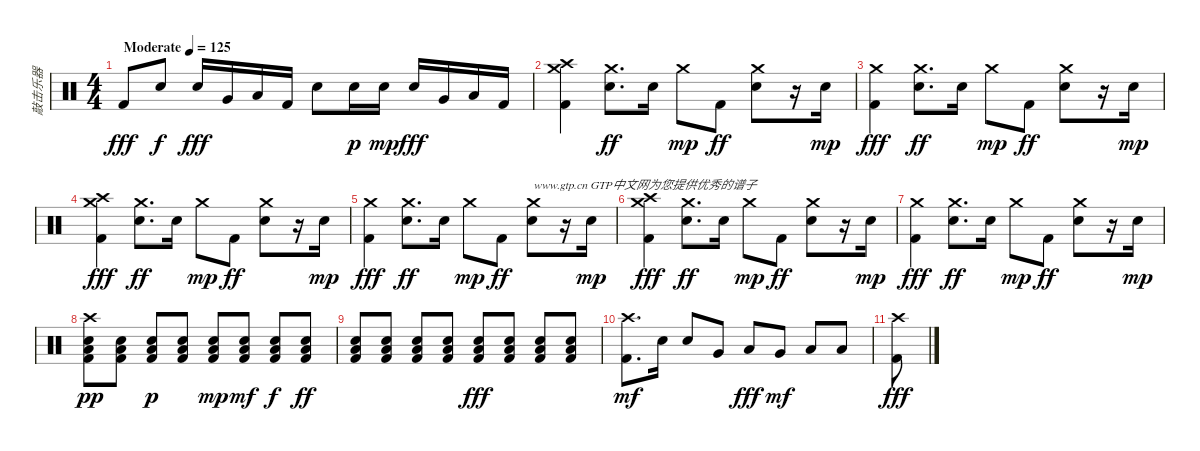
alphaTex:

\track ("敲击乐器" "敲击乐器") {instrument percussion}
\staff {score}
\articulation defaults
\ts (4 4)
\tempo (125 "Moderate")
\clef neutral
\ks c "Kick (hit) 2".8{dy fff} "Snare (hit) 2".8{dy f} "Snare (hit) 2".16{dy fff} "Very Low Tom (hit)".16 "Low Floor Tom (hit)".16 "Kick (hit) 2".16 "Snare (hit) 2".8 "Snare (hit) 2".16{dy p} "Snare (hit) 2".16{dy mp} "Snare (hit) 2".16{dy fff} "Very Low Tom (hit)".16 "Low Floor Tom (hit)".16 "Kick (hit) 2".16
|
("Crash high (hit)" "Crash medium (hit)" "Kick (hit) 2").4 ("Crash medium (hit)" "Snare (hit) 2").8{d dy ff} "Snare (hit) 2".16 "Crash medium (hit)".8{dy mp} "Kick (hit) 2".8{dy ff} ("Crash medium (hit)" "Snare (hit) 2").8 r.16 "Snare (hit) 2".16{dy mp} |
("Crash medium (hit)" "Kick (hit) 2").4{dy fff} ("Crash medium (hit)" "Snare (hit) 2").8{d dy ff} "Snare (hit) 2".16 "Crash medium (hit)".8{dy mp} "Kick (hit) 2".8{dy ff} ("Crash medium (hit)" "Snare (hit) 2").8 r.16 "Snare (hit) 2".16{dy mp} |
("Crash high (hit)" "Crash medium (hit)" "Kick (hit) 2").4{dy fff} ("Crash medium (hit)" "Snare (hit) 2").8{d dy ff} "Snare (hit) 2".16 "Crash medium (hit)".8{dy mp} "Kick (hit) 2".8{dy ff} ("Crash medium (hit)" "Snare (hit) 2").8 r.16 "Snare (hit) 2".16{dy mp} |
("Crash medium (hit)" "Kick (hit) 2").4{dy fff} ("Crash medium (hit)" "Snare (hit) 2").8{d dy ff} "Snare (hit) 2".16 "Crash medium (hit)".8{dy mp} "Kick (hit) 2".8{dy ff} ("Crash medium (hit)" "Snare (hit) 2").8{txt "www.gtp.cn GTP中文网为您提供优秀的谱子"} r.16 "Snare (hit) 2".16{dy mp} |
("Crash high (hit)" "Crash medium (hit)" "Kick (hit) 2").4{dy fff} ("Crash medium (hit)" "Snare (hit) 2").8{d dy ff} "Snare (hit) 2".16 "Crash medium (hit)".8{dy mp} "Kick (hit) 2".8{dy ff} ("Crash medium (hit)" "Snare (hit) 2").8 r.16 "Snare (hit) 2".16{dy mp} |
("Crash medium (hit)" "Kick (hit) 2").4{dy fff} ("Crash medium (hit)" "Snare (hit) 2").8{d dy ff} "Snare (hit) 2".16 "Crash medium (hit)".8{dy mp} "Kick (hit) 2".8{dy ff} ("Crash medium (hit)" "Snare (hit) 2").8 r.16 "Snare (hit) 2".16{dy mp} |
("Crash high (hit)" "Low Floor Tom (hit)" "Snare (hit) 2" "Kick (hit) 2").8{dy pp} ("Low Floor Tom (hit)" "Snare (hit) 2" "Kick (hit) 2").8 ("Low Floor Tom (hit)" "Snare (hit) 2" "Kick (hit) 2").8{dy p} ("Low Floor Tom (hit)" "Snare (hit) 2" "Kick (hit) 2").8 ("Low Floor Tom (hit)" "Snare (hit) 2" "Kick (hit) 2").8{dy mp} ("Low Floor Tom (hit)" "Snare (hit) 2" "Kick (hit) 2").8{dy mf} ("Low Floor Tom (hit)" "Snare (hit) 2" "Kick (hit) 2").8{dy f} ("Low Floor Tom (hit)" "Snare (hit) 2" "Kick (hit) 2").8{dy ff} |
("Low Floor Tom (hit)" "Snare (hit) 2" "Kick (hit) 2").8 ("Low Floor Tom (hit)" "Snare (hit) 2" "Kick (hit) 2").8 ("Low Floor Tom (hit)" "Snare (hit) 2" "Kick (hit) 2").8 ("Low Floor Tom (hit)" "Snare (hit) 2" "Kick (hit) 2").8 ("Low Floor Tom (hit)" "Snare (hit) 2" "Kick (hit) 2").8{dy fff} ("Low Floor Tom (hit)" "Snare (hit) 2" "Kick (hit) 2").8 ("Low Floor Tom (hit)" "Snare (hit) 2" "Kick (hit) 2").8 ("Low Floor Tom (hit)" "Snare (hit) 2" "Kick (hit) 2").8 |
("Crash high (hit)" "Kick (hit) 2").8{d dy mf} "Snare (hit) 2".16 "Snare (hit) 2".8 "Very Low Tom (hit)".8 "Low Tom (hit)".8{dy fff} "Very Low Tom (hit)".8{dy mf} "Low Floor Tom (hit)".8 "Low Floor Tom (hit)".8 |
("Crash high (hit)" "Kick (hit) 2").8{dy fff}
